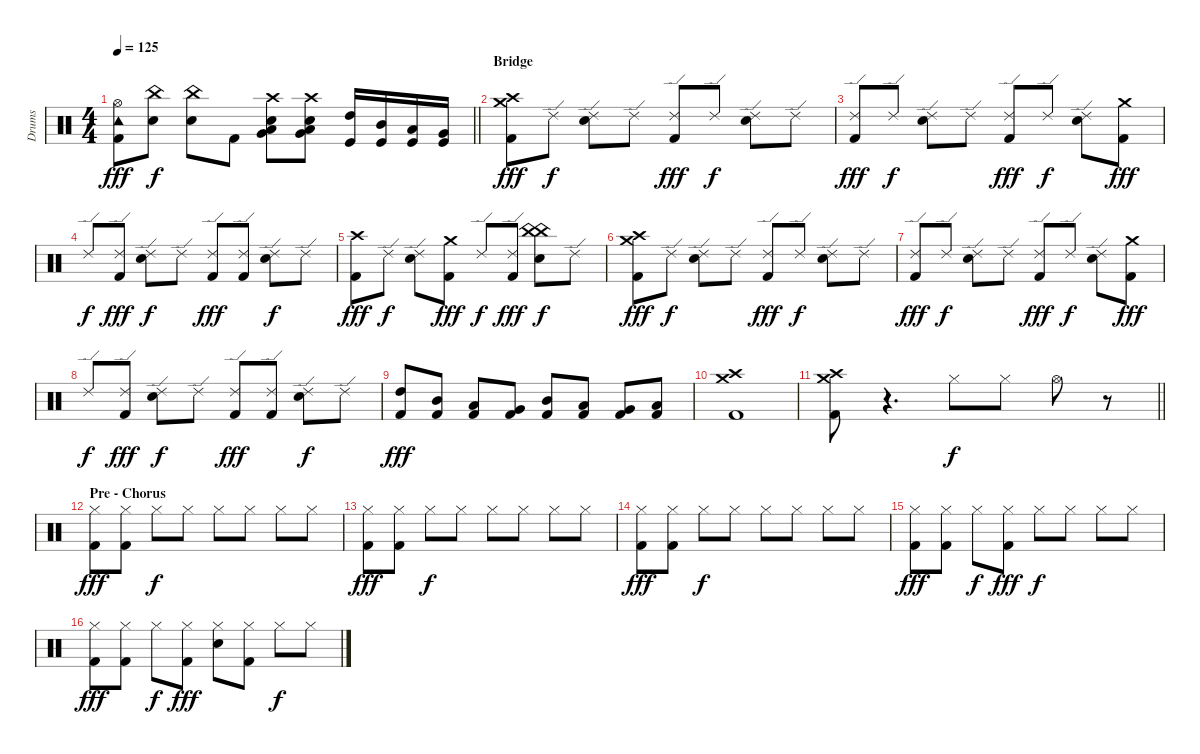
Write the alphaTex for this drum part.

\track ("Drums" "Drums") {instrument percussion}
\staff {score}
\articulation defaults
\ts (4 4)
\tempo 125
\clef neutral
\barLineRight lightlight
\ks c
("Hi-Hat (open)" "Kick (hit) 2" "Tambourine (hit)").8{dy fff} ("Electric Snare (hit)" "China (hit)").8{dy f} ("Electric Snare (hit)" "China (hit)").8 "Kick (hit) 2".8 ("Electric Snare (hit)" "Low Tom (hit)" "Very Low Tom (hit)" "Crash high (hit)").8 ("Electric Snare (hit)" "Low Tom (hit)" "Very Low Tom (hit)" "Crash high (hit)").8 ("High Tom (hit)" "Kick (hit)").16 ("Mid Tom (hit)" "Kick (hit)").16 ("Low Tom (hit)" "Kick (hit)").16 ("Very Low Tom (hit)" "Kick (hit)").16 |
\section ("" "Bridge")
("Crash high (hit)" "Kick (hit) 2" "Crash medium (hit)").8{dy fff} "Ride (edge) 2".8{dy f} ("Ride (edge) 2" "Electric Snare (hit)").8 "Ride (edge) 2".8 ("Ride (edge) 2" "Kick (hit) 2").8{dy fff} "Ride (edge) 2".8{dy f} ("Ride (edge) 2" "Electric Snare (hit)").8 "Ride (edge) 2".8 |
("Ride (edge) 2" "Kick (hit) 2").8{dy fff} "Ride (edge) 2".8{dy f} ("Ride (edge) 2" "Electric Snare (hit)").8 "Ride (edge) 2".8 ("Ride (edge) 2" "Kick (hit) 2").8{dy fff} "Ride (edge) 2".8{dy f} ("Ride (edge) 2" "Electric Snare (hit)").8 ("Crash medium (hit)" "Kick (hit) 2").8{dy fff} |
"Ride (edge) 2".8{dy f} ("Ride (edge) 2" "Kick (hit) 2").8{dy fff} ("Ride (edge) 2" "Electric Snare (hit)").8{dy f} "Ride (edge) 2".8 ("Ride (edge) 2" "Kick (hit) 2").8{dy fff} ("Ride (edge) 2" "Kick (hit) 2").8 ("Ride (edge) 2" "Electric Snare (hit)").8{dy f} "Ride (edge) 2".8 |
("Crash high (hit)" "Kick (hit) 2").8{dy fff} "Ride (edge) 2".8{dy f} ("Ride (edge) 2" "Electric Snare (hit)").8 ("Crash medium (hit)" "Kick (hit) 2").8{dy fff} "Ride (edge) 2".8{dy f} ("Ride (edge) 2" "Kick (hit) 2").8{dy fff} ("China (hit)" "Electric Snare (hit)" "China (hit)").8{dy f} "Ride (edge) 2".8 |
("Crash high (hit)" "Kick (hit) 2" "Crash medium (hit)").8{dy fff} "Ride (edge) 2".8{dy f} ("Ride (edge) 2" "Electric Snare (hit)").8 "Ride (edge) 2".8 ("Ride (edge) 2" "Kick (hit) 2").8{dy fff} "Ride (edge) 2".8{dy f} ("Ride (edge) 2" "Electric Snare (hit)").8 "Ride (edge) 2".8 |
("Ride (edge) 2" "Kick (hit) 2").8{dy fff} "Ride (edge) 2".8{dy f} ("Ride (edge) 2" "Electric Snare (hit)").8 "Ride (edge) 2".8 ("Ride (edge) 2" "Kick (hit) 2").8{dy fff} "Ride (edge) 2".8{dy f} ("Ride (edge) 2" "Electric Snare (hit)").8 ("Crash medium (hit)" "Kick (hit) 2").8{dy fff} |
"Ride (edge) 2".8{dy f} ("Ride (edge) 2" "Kick (hit) 2").8{dy fff} ("Ride (edge) 2" "Electric Snare (hit)").8{dy f} "Ride (edge) 2".8 ("Ride (edge) 2" "Kick (hit) 2").8{dy fff} ("Ride (edge) 2" "Kick (hit) 2").8 ("Ride (edge) 2" "Electric Snare (hit)").8{dy f} "Ride (edge) 2".8 |
("High Tom (hit)" "Kick (hit) 2").8{dy fff} ("Mid Tom (hit)" "Kick (hit) 2").8 ("Low Tom (hit)" "Kick (hit) 2").8 ("Very Low Tom (hit)" "Kick (hit) 2").8 ("Mid Tom (hit)" "Kick (hit) 2").8 ("Low Tom (hit)" "Kick (hit) 2").8 ("Very Low Tom (hit)" "Kick (hit) 2").8 ("Low Floor Tom (hit)" "Kick (hit) 2").8 |
("Crash high (hit)" "Kick (hit) 2" "Crash medium (hit)").1 |
\barLineRight lightlight
("Crash high (hit)" "Kick (hit) 2" "Crash medium (hit)").8 r.4{d} "Hi-Hat (closed)".8{dy f} "Hi-Hat (closed)".8 "Hi-Hat (open)".8 r.8 |
\section ("" "Pre - Chorus")
("Hi-Hat (closed)" "Kick (hit) 2").8{dy fff} ("Hi-Hat (closed)" "Kick (hit) 2").8 "Hi-Hat (closed)".8{dy f} "Hi-Hat (closed)".8 "Hi-Hat (closed)".8 "Hi-Hat (closed)".8 "Hi-Hat (closed)".8 "Hi-Hat (closed)".8 |
("Hi-Hat (closed)" "Kick (hit) 2").8{dy fff} ("Hi-Hat (closed)" "Kick (hit) 2").8 "Hi-Hat (closed)".8{dy f} "Hi-Hat (closed)".8 "Hi-Hat (closed)".8 "Hi-Hat (closed)".8 "Hi-Hat (closed)".8 "Hi-Hat (closed)".8 |
("Hi-Hat (closed)" "Kick (hit) 2").8{dy fff} ("Hi-Hat (closed)" "Kick (hit) 2").8 "Hi-Hat (closed)".8{dy f} "Hi-Hat (closed)".8 "Hi-Hat (closed)".8 "Hi-Hat (closed)".8 "Hi-Hat (closed)".8 "Hi-Hat (closed)".8 |
("Hi-Hat (closed)" "Kick (hit) 2").8{dy fff} ("Hi-Hat (closed)" "Kick (hit) 2").8 "Hi-Hat (closed)".8{dy f} ("Hi-Hat (closed)" "Kick (hit) 2").8{dy fff} "Hi-Hat (closed)".8{dy f} "Hi-Hat (closed)".8 "Hi-Hat (closed)".8 "Hi-Hat (closed)".8 |
("Hi-Hat (closed)" "Kick (hit) 2").8{dy fff} ("Hi-Hat (closed)" "Kick (hit) 2").8 "Hi-Hat (closed)".8{dy f} ("Hi-Hat (closed)" "Kick (hit) 2").8{dy fff} ("Hi-Hat (closed)" "Electric Snare (hit)").8 ("Hi-Hat (closed)" "Kick (hit) 2").8 "Hi-Hat (closed)".8{dy f} "Hi-Hat (closed)".8
